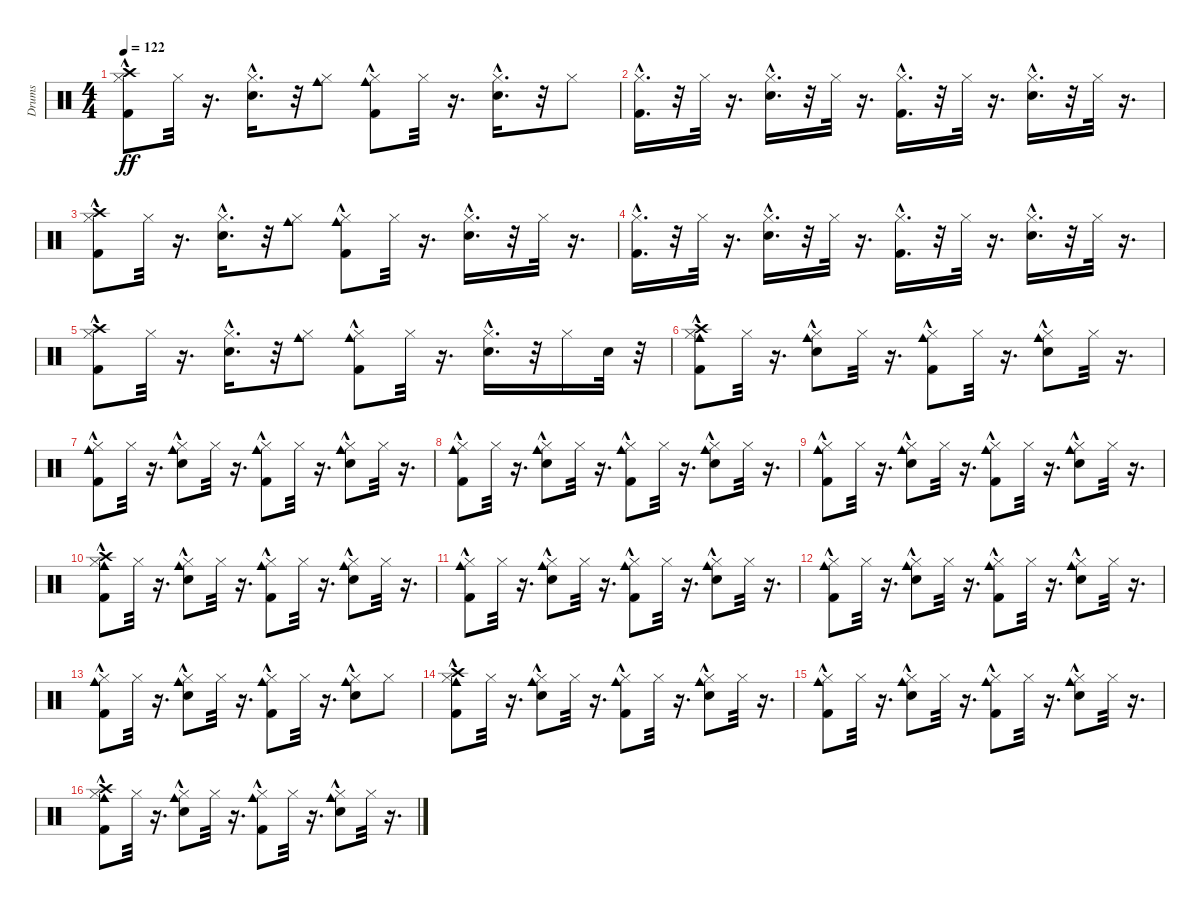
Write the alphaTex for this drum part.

\track ("Drums" "Drums") {instrument percussion}
\staff {score}
\articulation defaults
\ts (4 4)
\tempo 122
\clef neutral
\ks c
("Kick (hit) 2"{hac} "Hi-Hat (closed)"{hac} "Crash high (hit)"{hac}).8{dy ff} "Hi-Hat (closed)".32 r.16{d} ("Snare (hit) 2"{hac} "Hi-Hat (closed)"{hac}).16{d} r.32 ("Hi-Hat (closed)" "Cowbell medium (hit)").8 ("Kick (hit) 2"{hac} "Hi-Hat (closed)"{hac} "Cowbell medium (hit)").8 "Hi-Hat (closed)".32 r.16{d} ("Snare (hit) 2"{hac} "Hi-Hat (closed)"{hac}).16{d} r.32 "Hi-Hat (closed)".8 |
("Kick (hit) 2"{hac} "Hi-Hat (closed)"{hac}).16{d} r.32 "Hi-Hat (closed)".32 r.16{d} ("Snare (hit) 2"{hac} "Hi-Hat (closed)"{hac}).16{d} r.32 "Hi-Hat (closed)".32 r.16{d} ("Kick (hit) 2"{hac} "Hi-Hat (closed)"{hac}).16{d} r.32 "Hi-Hat (closed)".32 r.16{d} ("Snare (hit) 2"{hac} "Hi-Hat (closed)"{hac}).16{d} r.32 "Hi-Hat (closed)".32 r.16{d} |
("Kick (hit) 2"{hac} "Hi-Hat (closed)"{hac} "Crash high (hit)"{hac}).8 "Hi-Hat (closed)".32 r.16{d} ("Snare (hit) 2"{hac} "Hi-Hat (closed)"{hac}).16{d} r.32 ("Hi-Hat (closed)" "Cowbell medium (hit)").8 ("Kick (hit) 2"{hac} "Hi-Hat (closed)"{hac} "Cowbell medium (hit)").8 "Hi-Hat (closed)".32 r.16{d} ("Snare (hit) 2"{hac} "Hi-Hat (closed)"{hac}).16{d} r.32 "Hi-Hat (closed)".32 r.16{d} |
("Kick (hit) 2"{hac} "Hi-Hat (closed)"{hac}).16{d} r.32 "Hi-Hat (closed)".32 r.16{d} ("Snare (hit) 2"{hac} "Hi-Hat (closed)"{hac}).16{d} r.32 "Hi-Hat (closed)".32 r.16{d} ("Kick (hit) 2"{hac} "Hi-Hat (closed)"{hac}).16{d} r.32 "Hi-Hat (closed)".32 r.16{d} ("Snare (hit) 2"{hac} "Hi-Hat (closed)"{hac}).16{d} r.32 "Hi-Hat (closed)".32 r.16{d} |
("Kick (hit) 2"{hac} "Hi-Hat (closed)"{hac} "Crash high (hit)"{hac}).8 "Hi-Hat (closed)".32 r.16{d} ("Snare (hit) 2"{hac} "Hi-Hat (closed)"{hac}).16{d} r.32 ("Hi-Hat (closed)" "Cowbell medium (hit)").8 ("Kick (hit) 2"{hac} "Hi-Hat (closed)"{hac} "Cowbell medium (hit)").8 "Hi-Hat (closed)".32 r.16{d} ("Snare (hit) 2"{hac} "Hi-Hat (closed)"{hac}).16{d} r.32 "Hi-Hat (closed)".16 "Snare (hit) 2".32 r.32 |
("Kick (hit) 2"{hac} "Hi-Hat (closed)"{hac} "Crash high (hit)" "Cowbell medium (hit)").8 "Hi-Hat (closed)".32 r.16{d} ("Snare (hit) 2"{hac} "Hi-Hat (closed)"{hac} "Cowbell medium (hit)").8 "Hi-Hat (closed)".32 r.16{d} ("Kick (hit) 2"{hac} "Hi-Hat (closed)"{hac} "Cowbell medium (hit)").8 "Hi-Hat (closed)".32 r.16{d} ("Cowbell medium (hit)" "Snare (hit) 2"{hac} "Hi-Hat (closed)"{hac}).8 "Hi-Hat (closed)".32 r.16{d} |
("Kick (hit) 2"{hac} "Hi-Hat (closed)"{hac} "Cowbell medium (hit)").8 "Hi-Hat (closed)".32 r.16{d} ("Snare (hit) 2"{hac} "Hi-Hat (closed)"{hac} "Cowbell medium (hit)").8 "Hi-Hat (closed)".32 r.16{d} ("Kick (hit) 2"{hac} "Hi-Hat (closed)"{hac} "Cowbell medium (hit)").8 "Hi-Hat (closed)".32 r.16{d} ("Cowbell medium (hit)" "Snare (hit) 2"{hac} "Hi-Hat (closed)"{hac}).8 "Hi-Hat (closed)".32 r.16{d} |
("Kick (hit) 2"{hac} "Hi-Hat (closed)"{hac} "Cowbell medium (hit)").8 "Hi-Hat (closed)".32 r.16{d} ("Snare (hit) 2"{hac} "Hi-Hat (closed)"{hac} "Cowbell medium (hit)").8 "Hi-Hat (closed)".32 r.16{d} ("Kick (hit) 2"{hac} "Hi-Hat (closed)"{hac} "Cowbell medium (hit)").8 "Hi-Hat (closed)".32 r.16{d} ("Cowbell medium (hit)" "Snare (hit) 2"{hac} "Hi-Hat (closed)"{hac}).8 "Hi-Hat (closed)".32 r.16{d} |
("Kick (hit) 2"{hac} "Hi-Hat (closed)"{hac} "Cowbell medium (hit)").8 "Hi-Hat (closed)".32 r.16{d} ("Snare (hit) 2"{hac} "Hi-Hat (closed)"{hac} "Cowbell medium (hit)").8 "Hi-Hat (closed)".32 r.16{d} ("Kick (hit) 2"{hac} "Hi-Hat (closed)"{hac} "Cowbell medium (hit)").8 "Hi-Hat (closed)".32 r.16{d} ("Cowbell medium (hit)" "Snare (hit) 2"{hac} "Hi-Hat (closed)"{hac}).8 "Hi-Hat (closed)".32 r.16{d} |
("Kick (hit) 2"{hac} "Hi-Hat (closed)"{hac} "Crash high (hit)" "Cowbell medium (hit)").8 "Hi-Hat (closed)".32 r.16{d} ("Snare (hit) 2"{hac} "Hi-Hat (closed)"{hac} "Cowbell medium (hit)").8 "Hi-Hat (closed)".32 r.16{d} ("Kick (hit) 2"{hac} "Hi-Hat (closed)"{hac} "Cowbell medium (hit)").8 "Hi-Hat (closed)".32 r.16{d} ("Cowbell medium (hit)" "Snare (hit) 2"{hac} "Hi-Hat (closed)"{hac}).8 "Hi-Hat (closed)".32 r.16{d} |
("Kick (hit) 2"{hac} "Hi-Hat (closed)"{hac} "Cowbell medium (hit)").8 "Hi-Hat (closed)".32 r.16{d} ("Snare (hit) 2"{hac} "Hi-Hat (closed)"{hac} "Cowbell medium (hit)").8 "Hi-Hat (closed)".32 r.16{d} ("Kick (hit) 2"{hac} "Hi-Hat (closed)"{hac} "Cowbell medium (hit)").8 "Hi-Hat (closed)".32 r.16{d} ("Cowbell medium (hit)" "Snare (hit) 2"{hac} "Hi-Hat (closed)"{hac}).8 "Hi-Hat (closed)".32 r.16{d} |
("Kick (hit) 2"{hac} "Hi-Hat (closed)"{hac} "Cowbell medium (hit)").8 "Hi-Hat (closed)".32 r.16{d} ("Snare (hit) 2"{hac} "Hi-Hat (closed)"{hac} "Cowbell medium (hit)").8 "Hi-Hat (closed)".32 r.16{d} ("Kick (hit) 2"{hac} "Hi-Hat (closed)"{hac} "Cowbell medium (hit)").8 "Hi-Hat (closed)".32 r.16{d} ("Cowbell medium (hit)" "Snare (hit) 2"{hac} "Hi-Hat (closed)"{hac}).8 "Hi-Hat (closed)".32 r.16{d} |
("Kick (hit) 2"{hac} "Hi-Hat (closed)"{hac} "Cowbell medium (hit)").8 "Hi-Hat (closed)".32 r.16{d} ("Snare (hit) 2"{hac} "Hi-Hat (closed)"{hac} "Cowbell medium (hit)").8 "Hi-Hat (closed)".32 r.16{d} ("Kick (hit) 2"{hac} "Hi-Hat (closed)"{hac} "Cowbell medium (hit)").8 "Hi-Hat (closed)".32 r.16{d} ("Cowbell medium (hit)" "Snare (hit) 2"{hac} "Hi-Hat (closed)"{hac}).8 "Hi-Hat (closed)".8 |
("Kick (hit) 2"{hac} "Hi-Hat (closed)"{hac} "Crash high (hit)" "Cowbell medium (hit)").8{volume 12} "Hi-Hat (closed)".32{volume 12} r.16{d} ("Snare (hit) 2"{hac} "Hi-Hat (closed)"{hac} "Cowbell medium (hit)").8{volume 12} "Hi-Hat (closed)".32{volume 12} r.16{d} ("Kick (hit) 2"{hac} "Hi-Hat (closed)"{hac} "Cowbell medium (hit)").8{volume 12} "Hi-Hat (closed)".32{volume 11} r.16{d} ("Cowbell medium (hit)" "Snare (hit) 2"{hac} "Hi-Hat (closed)"{hac}).8{volume 11} "Hi-Hat (closed)".32{volume 11} r.16{d} |
("Kick (hit) 2"{hac} "Hi-Hat (closed)"{hac} "Cowbell medium (hit)").8{volume 11} "Hi-Hat (closed)".32{volume 11} r.16{d} ("Snare (hit) 2"{hac} "Hi-Hat (closed)"{hac} "Cowbell medium (hit)").8{volume 11} "Hi-Hat (closed)".32{volume 11} r.16{d} ("Kick (hit) 2"{hac} "Hi-Hat (closed)"{hac} "Cowbell medium (hit)").8{volume 10} "Hi-Hat (closed)".32{volume 10} r.16{d} ("Cowbell medium (hit)" "Snare (hit) 2"{hac} "Hi-Hat (closed)"{hac}).8{volume 10} "Hi-Hat (closed)".32{volume 10} r.16{d} |
("Kick (hit) 2"{hac} "Hi-Hat (closed)"{hac} "Crash high (hit)"{hac} "Cowbell medium (hit)").8{volume 10} "Hi-Hat (closed)".32{volume 10} r.16{d} ("Snare (hit) 2"{hac} "Hi-Hat (closed)"{hac} "Cowbell medium (hit)").8{volume 10} "Hi-Hat (closed)".32{volume 10} r.16{d} ("Kick (hit) 2"{hac} "Hi-Hat (closed)"{hac} "Cowbell medium (hit)").8{volume 9} "Hi-Hat (closed)".32{volume 9} r.16{d} ("Cowbell medium (hit)" "Snare (hit) 2"{hac} "Hi-Hat (closed)"{hac}).8{volume 9} "Hi-Hat (closed)".32{volume 9} r.16{d}
